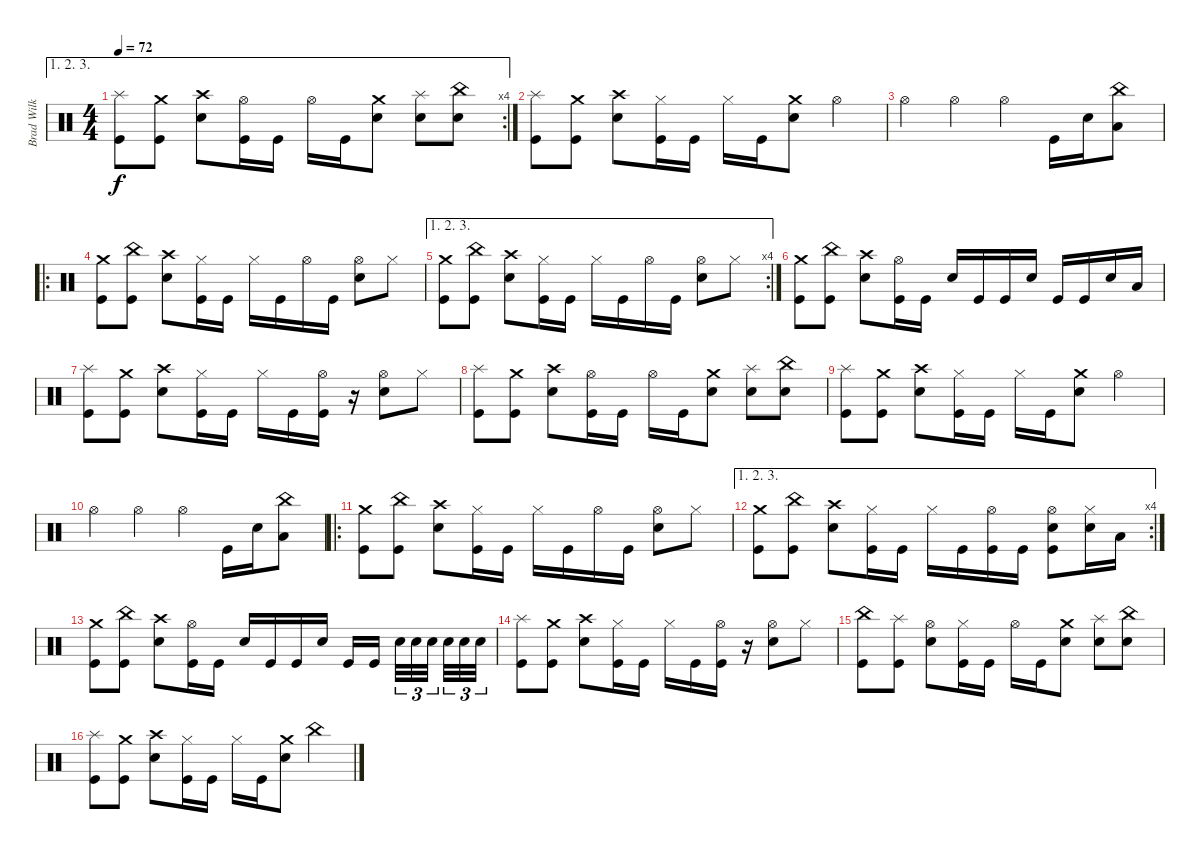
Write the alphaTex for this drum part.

\track ("Brad Wilk (Drums)" "Brad Wilk ") {mute instrument percussion}
\staff {score}
\articulation defaults
\ae (1 2 3)
\rc 4
\ts (4 4)
\tempo 72
\clef neutral
\ks c
("Splash (hit)" "Kick (hit)").8{dy f} ("Crash medium (hit)" "Kick (hit)").8 ("Crash high (hit)" "Snare (hit) 2").8 ("Hi-Hat (open)" "Kick (hit)").16 "Kick (hit)".16 "Hi-Hat (open)".16 "Kick (hit)".16 ("Crash medium (hit)" "Snare (hit) 2").8 ("Splash (hit)" "Snare (hit) 2").8 ("China (hit)" "Snare (hit) 2").8 |
("Splash (hit)" "Kick (hit)").8 ("Crash medium (hit)" "Kick (hit)").8 ("Crash high (hit)" "Snare (hit) 2").8 ("Hi-Hat (closed)" "Kick (hit)").16 "Kick (hit)".16 "Hi-Hat (closed)".16 "Kick (hit)".16 ("Crash medium (hit)" "Snare (hit) 2").8 "Hi-Hat (open)".4 |
"Hi-Hat (open)".4 "Hi-Hat (open)".4 "Hi-Hat (open)".4 "Kick (hit)".16 "Snare (hit) 2".16 ("China (hit)" "Low Tom (hit)").8 |
\ro
("Crash medium (hit)" "Kick (hit)").8 ("China (hit)" "Kick (hit)").8 ("Crash high (hit)" "Snare (hit) 2").8 ("Hi-Hat (closed)" "Kick (hit)").16 "Kick (hit)".16 "Hi-Hat (closed)".16 "Kick (hit)".16 "Hi-Hat (open)".16 "Kick (hit)".16 ("Hi-Hat (open)" "Snare (hit) 2").8 "Hi-Hat (closed)".8 |
\ae (1 2 3)
\rc 4
("Crash medium (hit)" "Kick (hit)").8 ("China (hit)" "Kick (hit)").8 ("Crash high (hit)" "Snare (hit) 2").8 ("Hi-Hat (closed)" "Kick (hit)").16 "Kick (hit)".16 "Hi-Hat (closed)".16 "Kick (hit)".16 "Hi-Hat (open)".16 "Kick (hit)".16 ("Hi-Hat (open)" "Snare (hit) 2").8 "Hi-Hat (closed)".8 |
("Crash medium (hit)" "Kick (hit)").8 ("China (hit)" "Kick (hit)").8 ("Crash high (hit)" "Snare (hit) 2").8 ("Hi-Hat (open)" "Kick (hit)").16 "Kick (hit)".16 "Snare (hit) 2".16 "Kick (hit)".16 "Kick (hit)".16 "Snare (hit) 2".16 "Kick (hit)".16 "Kick (hit)".16 "Snare (hit) 2".16 "Low Floor Tom (hit)".16 |
("Splash (hit)" "Kick (hit)").8 ("Crash medium (hit)" "Kick (hit)").8 ("Crash high (hit)" "Snare (hit) 2").8 ("Hi-Hat (closed)" "Kick (hit)").16 "Kick (hit)".16 "Hi-Hat (closed)".16 "Kick (hit)".16 ("Hi-Hat (open)" "Kick (hit)").16 r.16 ("Hi-Hat (open)" "Snare (hit) 2").8 "Hi-Hat (closed)".8 |
("Splash (hit)" "Kick (hit)").8 ("Crash medium (hit)" "Kick (hit)").8 ("Crash high (hit)" "Snare (hit) 2").8 ("Hi-Hat (open)" "Kick (hit)").16 "Kick (hit)".16 "Hi-Hat (open)".16 "Kick (hit)".16 ("Crash medium (hit)" "Snare (hit) 2").8 ("Splash (hit)" "Snare (hit) 2").8 ("China (hit)" "Snare (hit) 2").8 |
("Splash (hit)" "Kick (hit)").8 ("Crash medium (hit)" "Kick (hit)").8 ("Crash high (hit)" "Snare (hit) 2").8 ("Hi-Hat (closed)" "Kick (hit)").16 "Kick (hit)".16 "Hi-Hat (closed)".16 "Kick (hit)".16 ("Crash medium (hit)" "Snare (hit) 2").8 "Hi-Hat (open)".4 |
"Hi-Hat (open)".4 "Hi-Hat (open)".4 "Hi-Hat (open)".4 "Kick (hit)".16 "Snare (hit) 2".16 ("China (hit)" "Low Floor Tom (hit)").8 |
\ro
("Crash medium (hit)" "Kick (hit)").8 ("China (hit)" "Kick (hit)").8 ("Crash high (hit)" "Snare (hit) 2").8 ("Hi-Hat (closed)" "Kick (hit)").16 "Kick (hit)".16 "Hi-Hat (closed)".16 "Kick (hit)".16 "Hi-Hat (open)".16 "Kick (hit)".16 ("Hi-Hat (open)" "Snare (hit) 2").8 "Hi-Hat (closed)".8 |
\ae (1 2 3)
\rc 4
("Crash medium (hit)" "Kick (hit)").8 ("China (hit)" "Kick (hit)").8 ("Crash high (hit)" "Snare (hit) 2").8 ("Hi-Hat (closed)" "Kick (hit)").16 "Kick (hit)".16 "Hi-Hat (closed)".16 "Kick (hit)".16 ("Hi-Hat (open)" "Kick (hit)").16 "Kick (hit)".16 ("Hi-Hat (open)" "Snare (hit) 2" "Kick (hit)").8 ("Hi-Hat (closed)" "Snare (hit) 2").16 "Low Floor Tom (hit)".16 |
("Crash medium (hit)" "Kick (hit)").8 ("China (hit)" "Kick (hit)").8 ("Crash high (hit)" "Snare (hit) 2").8 ("Hi-Hat (open)" "Kick (hit)").16 "Kick (hit)".16 "Snare (hit) 2".16 "Kick (hit)".16 "Kick (hit)".16 "Snare (hit) 2".16 "Kick (hit)".16 "Kick (hit)".16 "Snare (hit) 2".32{tu (3 2)} "Snare (hit) 2".32{tu (3 2)} "Snare (hit) 2".32{tu (3 2)} "Snare (hit) 2".32{tu (3 2)} "Snare (hit) 2".32{tu (3 2)} "Snare (hit) 2".32{tu (3 2)} |
("Splash (hit)" "Kick (hit)").8 ("Crash medium (hit)" "Kick (hit)").8 ("Crash high (hit)" "Snare (hit) 2").8 ("Hi-Hat (closed)" "Kick (hit)").16 "Kick (hit)".16 "Hi-Hat (closed)".16 "Kick (hit)".16 ("Hi-Hat (open)" "Kick (hit)").16 r.16 ("Hi-Hat (open)" "Snare (hit) 2").8 "Hi-Hat (closed)".8 |
("China (hit)" "Kick (hit)").8 ("Splash (hit)" "Kick (hit)").8 ("Hi-Hat (open)" "Snare (hit) 2").8 ("Hi-Hat (closed)" "Kick (hit)").16 "Kick (hit)".16 "Hi-Hat (open)".16 "Kick (hit)".16 ("Crash medium (hit)" "Snare (hit) 2").8 ("Splash (hit)" "Snare (hit) 2").8 ("China (hit)" "Snare (hit) 2").8 |
("Splash (hit)" "Kick (hit)").8 ("Crash medium (hit)" "Kick (hit)").8 ("Crash high (hit)" "Snare (hit) 2").8 ("Hi-Hat (closed)" "Kick (hit)").16 "Kick (hit)".16 "Hi-Hat (closed)".16 "Kick (hit)".16 ("Crash medium (hit)" "Snare (hit) 2").8 "China (hit)".4
